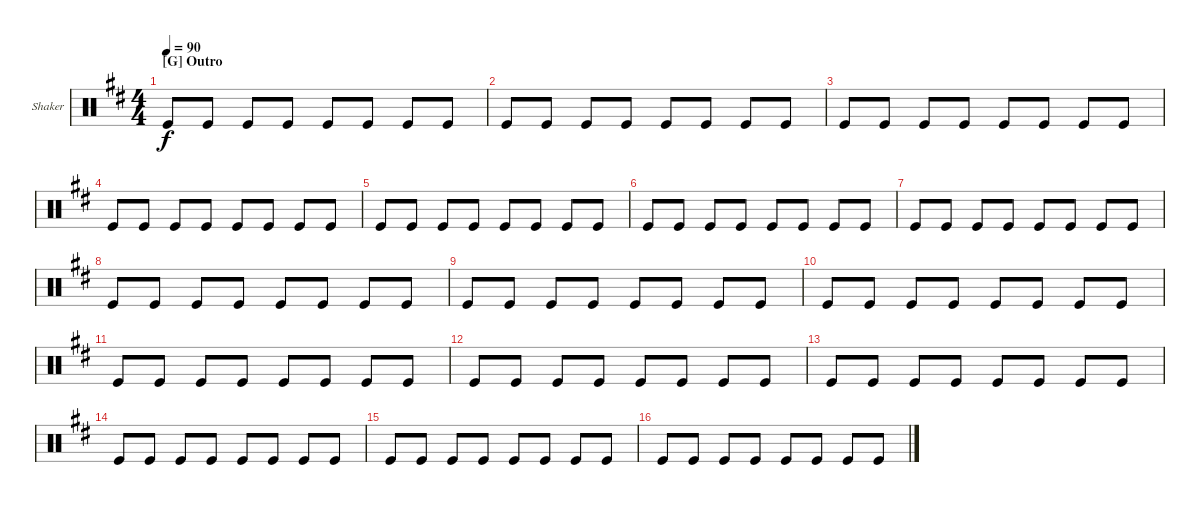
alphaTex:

\defaultSystemsLayout 4
\bracketExtendMode groupsimilarinstruments
\firstSystemTrackNameOrientation horizontal
\otherSystemsTrackNameOrientation horizontal
\track ("Shaker" "Shaker") {multiBarRest instrument percussion}
\staff {score}
\articulation defaults
\ts (4 4)
\section ("G" "Outro")
\tempo 90
\clef neutral
\ks d "Kick (hit)".8{dy f} "Kick (hit)".8 "Kick (hit)".8 "Kick (hit)".8 "Kick (hit)".8 "Kick (hit)".8 "Kick (hit)".8 "Kick (hit)".8
|
"Kick (hit)".8 "Kick (hit)".8 "Kick (hit)".8 "Kick (hit)".8 "Kick (hit)".8 "Kick (hit)".8 "Kick (hit)".8 "Kick (hit)".8 |
"Kick (hit)".8 "Kick (hit)".8 "Kick (hit)".8 "Kick (hit)".8 "Kick (hit)".8 "Kick (hit)".8 "Kick (hit)".8 "Kick (hit)".8 |
"Kick (hit)".8 "Kick (hit)".8 "Kick (hit)".8 "Kick (hit)".8 "Kick (hit)".8 "Kick (hit)".8 "Kick (hit)".8 "Kick (hit)".8 |
"Kick (hit)".8 "Kick (hit)".8 "Kick (hit)".8 "Kick (hit)".8 "Kick (hit)".8 "Kick (hit)".8 "Kick (hit)".8 "Kick (hit)".8 |
"Kick (hit)".8 "Kick (hit)".8 "Kick (hit)".8 "Kick (hit)".8 "Kick (hit)".8 "Kick (hit)".8 "Kick (hit)".8 "Kick (hit)".8 |
"Kick (hit)".8 "Kick (hit)".8 "Kick (hit)".8 "Kick (hit)".8 "Kick (hit)".8 "Kick (hit)".8 "Kick (hit)".8 "Kick (hit)".8 |
"Kick (hit)".8 "Kick (hit)".8 "Kick (hit)".8 "Kick (hit)".8 "Kick (hit)".8 "Kick (hit)".8 "Kick (hit)".8 "Kick (hit)".8 |
"Kick (hit)".8 "Kick (hit)".8 "Kick (hit)".8 "Kick (hit)".8 "Kick (hit)".8 "Kick (hit)".8 "Kick (hit)".8 "Kick (hit)".8 |
"Kick (hit)".8 "Kick (hit)".8 "Kick (hit)".8 "Kick (hit)".8 "Kick (hit)".8 "Kick (hit)".8 "Kick (hit)".8 "Kick (hit)".8 |
"Kick (hit)".8 "Kick (hit)".8 "Kick (hit)".8 "Kick (hit)".8 "Kick (hit)".8 "Kick (hit)".8 "Kick (hit)".8 "Kick (hit)".8 |
"Kick (hit)".8 "Kick (hit)".8 "Kick (hit)".8 "Kick (hit)".8 "Kick (hit)".8 "Kick (hit)".8 "Kick (hit)".8 "Kick (hit)".8 |
"Kick (hit)".8 "Kick (hit)".8 "Kick (hit)".8 "Kick (hit)".8 "Kick (hit)".8 "Kick (hit)".8 "Kick (hit)".8 "Kick (hit)".8 |
"Kick (hit)".8 "Kick (hit)".8 "Kick (hit)".8 "Kick (hit)".8 "Kick (hit)".8 "Kick (hit)".8 "Kick (hit)".8 "Kick (hit)".8 |
"Kick (hit)".8 "Kick (hit)".8 "Kick (hit)".8 "Kick (hit)".8 "Kick (hit)".8 "Kick (hit)".8 "Kick (hit)".8 "Kick (hit)".8 |
"Kick (hit)".8 "Kick (hit)".8 "Kick (hit)".8 "Kick (hit)".8 "Kick (hit)".8 "Kick (hit)".8 "Kick (hit)".8 "Kick (hit)".8
